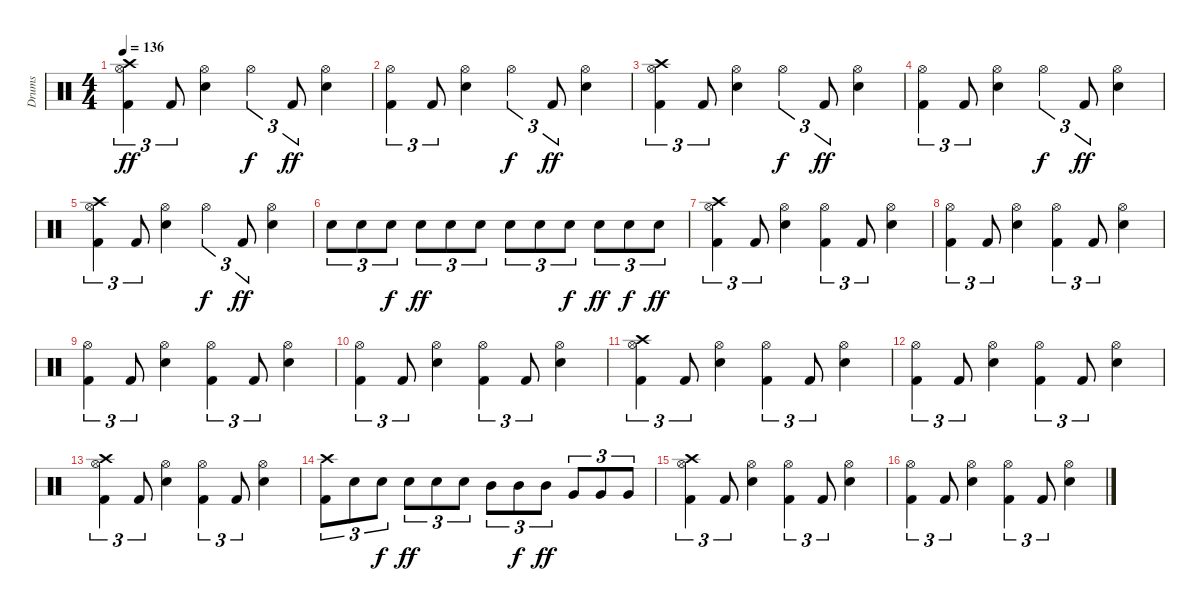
\track ("Drums" "Drums") {instrument percussion}
\staff {score}
\articulation defaults
\ts (4 4)
\tempo 136
\clef neutral
\ks c
("Hi-Hat (open)" "Kick (hit) 2" "Crash high (hit)").4{tu (3 2) dy ff} "Kick (hit) 2".8{tu (3 2)} ("Hi-Hat (open)" "Snare (hit) 2").4 "Hi-Hat (open)".4{tu (3 2) dy f} "Kick (hit) 2".8{tu (3 2) dy ff} ("Snare (hit) 2" "Hi-Hat (open)").4 |
("Hi-Hat (open)" "Kick (hit) 2").4{tu (3 2)} "Kick (hit) 2".8{tu (3 2)} ("Snare (hit) 2" "Hi-Hat (open)").4 "Hi-Hat (open)".4{tu (3 2) dy f} "Kick (hit) 2".8{tu (3 2) dy ff} ("Snare (hit) 2" "Hi-Hat (open)").4 |
("Kick (hit) 2" "Hi-Hat (open)" "Crash high (hit)").4{tu (3 2)} "Kick (hit) 2".8{tu (3 2)} ("Snare (hit) 2" "Hi-Hat (open)").4 "Hi-Hat (open)".4{tu (3 2) dy f} "Kick (hit) 2".8{tu (3 2) dy ff} ("Snare (hit) 2" "Hi-Hat (open)").4 |
("Hi-Hat (open)" "Kick (hit) 2").4{tu (3 2)} "Kick (hit) 2".8{tu (3 2)} ("Snare (hit) 2" "Hi-Hat (open)").4 "Hi-Hat (open)".4{tu (3 2) dy f} "Kick (hit) 2".8{tu (3 2) dy ff} ("Snare (hit) 2" "Hi-Hat (open)").4 |
("Kick (hit) 2" "Crash high (hit)" "Hi-Hat (open)").4{tu (3 2)} "Kick (hit) 2".8{tu (3 2)} ("Snare (hit) 2" "Hi-Hat (open)").4 "Hi-Hat (open)".4{tu (3 2) dy f} "Kick (hit) 2".8{tu (3 2) dy ff} ("Snare (hit) 2" "Hi-Hat (open)").4 |
"Snare (hit) 2".8{tu (3 2)} "Snare (hit) 2".8{tu (3 2)} "Snare (hit) 2".8{tu (3 2) dy f} "Snare (hit) 2".8{tu (3 2) dy ff} "Snare (hit) 2".8{tu (3 2)} "Snare (hit) 2".8{tu (3 2)} "Snare (hit) 2".8{tu (3 2)} "Snare (hit) 2".8{tu (3 2)} "Snare (hit) 2".8{tu (3 2) dy f} "Snare (hit) 2".8{tu (3 2) dy ff} "Snare (hit) 2".8{tu (3 2) dy f} "Snare (hit) 2".8{tu (3 2) dy ff} |
("Crash high (hit)" "Hi-Hat (open)" "Kick (hit) 2").4{tu (3 2)} "Kick (hit) 2".8{tu (3 2)} ("Hi-Hat (open)" "Snare (hit) 2").4 ("Kick (hit) 2" "Hi-Hat (open)").4{tu (3 2)} "Kick (hit) 2".8{tu (3 2)} ("Snare (hit) 2" "Hi-Hat (open)").4 |
("Hi-Hat (open)" "Kick (hit) 2").4{tu (3 2)} "Kick (hit) 2".8{tu (3 2)} ("Snare (hit) 2" "Hi-Hat (open)").4 ("Kick (hit) 2" "Hi-Hat (open)").4{tu (3 2)} "Kick (hit) 2".8{tu (3 2)} ("Snare (hit) 2" "Hi-Hat (open)").4 |
("Hi-Hat (open)" "Kick (hit) 2").4{tu (3 2)} "Kick (hit) 2".8{tu (3 2)} ("Snare (hit) 2" "Hi-Hat (open)").4 ("Kick (hit) 2" "Hi-Hat (open)").4{tu (3 2)} "Kick (hit) 2".8{tu (3 2)} ("Snare (hit) 2" "Hi-Hat (open)").4 |
("Hi-Hat (open)" "Kick (hit) 2").4{tu (3 2)} "Kick (hit) 2".8{tu (3 2)} ("Snare (hit) 2" "Hi-Hat (open)").4 ("Kick (hit) 2" "Hi-Hat (open)").4{tu (3 2)} "Kick (hit) 2".8{tu (3 2)} ("Snare (hit) 2" "Hi-Hat (open)").4 |
("Crash high (hit)" "Hi-Hat (open)" "Kick (hit) 2").4{tu (3 2)} "Kick (hit) 2".8{tu (3 2)} ("Hi-Hat (open)" "Snare (hit) 2").4 ("Kick (hit) 2" "Hi-Hat (open)").4{tu (3 2)} "Kick (hit) 2".8{tu (3 2)} ("Snare (hit) 2" "Hi-Hat (open)").4 |
("Hi-Hat (open)" "Kick (hit) 2").4{tu (3 2)} "Kick (hit) 2".8{tu (3 2)} ("Snare (hit) 2" "Hi-Hat (open)").4 ("Kick (hit) 2" "Hi-Hat (open)").4{tu (3 2)} "Kick (hit) 2".8{tu (3 2)} ("Snare (hit) 2" "Hi-Hat (open)").4 |
("Crash high (hit)" "Hi-Hat (open)" "Kick (hit) 2").4{tu (3 2)} "Kick (hit) 2".8{tu (3 2)} ("Hi-Hat (open)" "Snare (hit) 2").4 ("Kick (hit) 2" "Hi-Hat (open)").4{tu (3 2)} "Kick (hit) 2".8{tu (3 2)} ("Snare (hit) 2" "Hi-Hat (open)").4 |
("Kick (hit) 2" "Crash high (hit)").8{tu (3 2)} "Snare (hit) 2".8{tu (3 2)} "Snare (hit) 2".8{tu (3 2) dy f} "Snare (hit) 2".8{tu (3 2) dy ff} "Snare (hit) 2".8{tu (3 2)} "Snare (hit) 2".8{tu (3 2)} "Mid Tom (hit)".8{tu (3 2)} "Mid Tom (hit)".8{tu (3 2) dy f} "Mid Tom (hit)".8{tu (3 2) dy ff} "Very Low Tom (hit)".8{tu (3 2)} "Very Low Tom (hit)".8{tu (3 2)} "Very Low Tom (hit)".8{tu (3 2)} |
("Kick (hit) 2" "Crash high (hit)" "Hi-Hat (open)").4{tu (3 2)} "Kick (hit) 2".8{tu (3 2)} ("Hi-Hat (open)" "Snare (hit) 2").4 ("Kick (hit) 2" "Hi-Hat (open)").4{tu (3 2)} "Kick (hit) 2".8{tu (3 2)} ("Hi-Hat (open)" "Snare (hit) 2").4 |
("Kick (hit) 2" "Hi-Hat (open)").4{tu (3 2)} "Kick (hit) 2".8{tu (3 2)} ("Snare (hit) 2" "Hi-Hat (open)").4 ("Hi-Hat (open)" "Kick (hit) 2").4{tu (3 2)} "Kick (hit) 2".8{tu (3 2)} ("Snare (hit) 2" "Hi-Hat (open)").4
